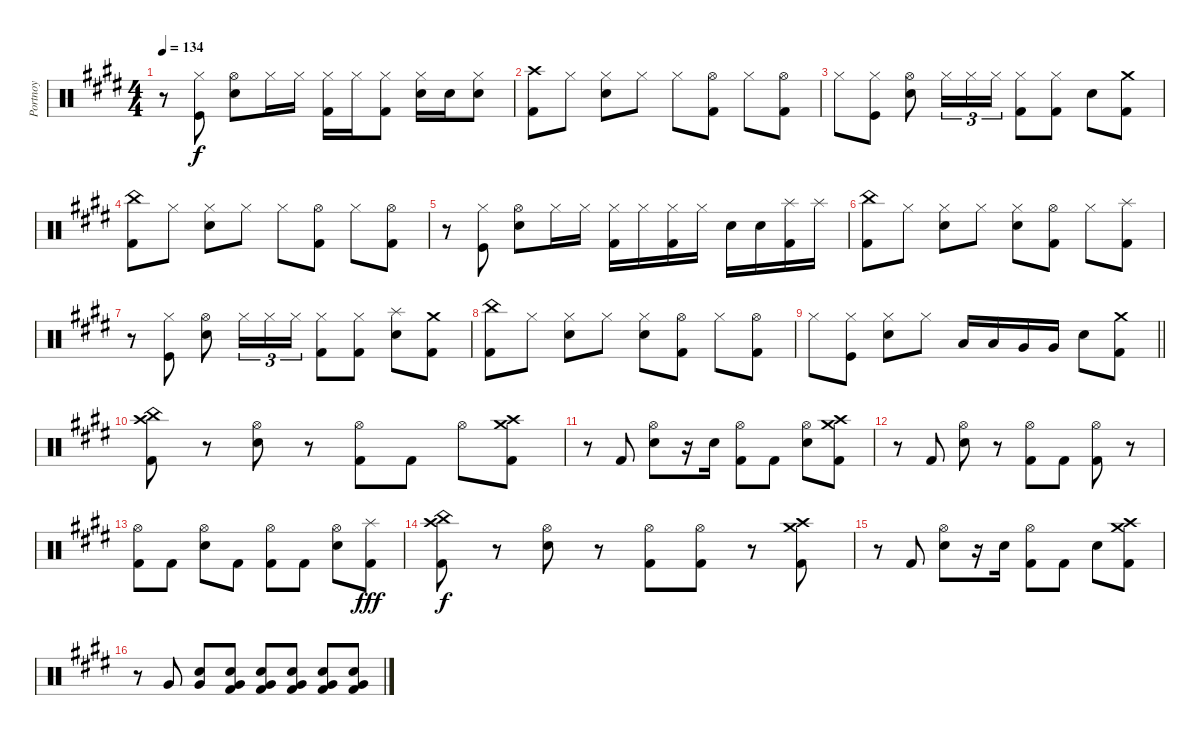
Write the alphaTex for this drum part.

\track ("Portnoy" "Portnoy") {instrument percussion}
\staff {score}
\articulation defaults
\ts (4 4)
\tempo 134
\clef neutral
\ks c#minor
r.8{dy f} ("Kick (hit)" "Hi-Hat (closed)").8 ("Snare (hit) 2" "Hi-Hat (open)").8 "Hi-Hat (closed)".16 "Hi-Hat (closed)".16 ("Kick (hit) 2" "Hi-Hat (closed)").16 "Hi-Hat (closed)".16 ("Kick (hit) 2" "Hi-Hat (closed)").8 ("Electric Snare (hit)" "Hi-Hat (closed)").16 "Electric Snare (hit)".16 ("Snare (hit) 2" "Hi-Hat (closed)").8 |
("Kick (hit) 2" "Crash high (hit)").8 "Hi-Hat (closed)".8 ("Snare (hit) 2" "Hi-Hat (closed)").8 "Hi-Hat (closed)".8 "Hi-Hat (closed)".8 ("Kick (hit) 2" "Hi-Hat (open)").8 "Hi-Hat (closed)".8 ("Kick (hit) 2" "Hi-Hat (open)").8 |
"Hi-Hat (closed)".8 ("Kick (hit)" "Hi-Hat (closed)").8 ("Snare (hit) 2" "Hi-Hat (open)").8 "Hi-Hat (closed)".16{tu (3 2)} "Hi-Hat (closed)".16{tu (3 2)} "Hi-Hat (closed)".16{tu (3 2)} ("Kick (hit) 2" "Hi-Hat (closed)").8 ("Kick (hit) 2" "Hi-Hat (closed)").8 "Snare (hit) 2".8 ("Kick (hit) 2" "Crash medium (hit)").8 |
("Kick (hit) 2" "China (hit)").8 "Hi-Hat (closed)".8 ("Snare (hit) 2" "Hi-Hat (closed)").8 "Hi-Hat (closed)".8 "Hi-Hat (closed)".8 ("Kick (hit) 2" "Hi-Hat (open)").8 "Hi-Hat (closed)".8 ("Kick (hit) 2" "Hi-Hat (open)").8 |
r.8 ("Kick (hit)" "Hi-Hat (closed)").8 ("Snare (hit) 2" "Hi-Hat (open)").8 "Hi-Hat (closed)".16 "Hi-Hat (closed)".16 ("Kick (hit) 2" "Hi-Hat (closed)").16 "Hi-Hat (closed)".16 ("Kick (hit) 2" "Hi-Hat (closed)").16 "Hi-Hat (closed)".16 "Electric Snare (hit)".16 "Electric Snare (hit)".16 ("Kick (hit) 2" "Splash (hit)").16 "Splash (hit)".16 |
("Kick (hit) 2" "China (hit)").8 "Hi-Hat (closed)".8 ("Snare (hit) 2" "Hi-Hat (closed)").8 "Hi-Hat (closed)".8 ("Snare (hit) 2" "Hi-Hat (closed)").8 ("Kick (hit) 2" "Hi-Hat (open)").8 "Hi-Hat (closed)".8 ("Kick (hit) 2" "Splash (hit)").8 |
r.8 ("Kick (hit)" "Hi-Hat (closed)").8 ("Snare (hit) 2" "Hi-Hat (open)").8 "Hi-Hat (closed)".16{tu (3 2)} "Hi-Hat (closed)".16{tu (3 2)} "Hi-Hat (closed)".16{tu (3 2)} ("Kick (hit) 2" "Hi-Hat (closed)").8 ("Kick (hit) 2" "Hi-Hat (closed)").8 ("Snare (hit) 2" "Splash (hit)").8 ("Kick (hit) 2" "Crash medium (hit)").8 |
("Kick (hit) 2" "China (hit)").8 "Hi-Hat (closed)".8 ("Snare (hit) 2" "Hi-Hat (closed)").8 "Hi-Hat (closed)".8 ("Snare (hit) 2" "Hi-Hat (closed)").8 ("Kick (hit) 2" "Hi-Hat (open)").8 "Hi-Hat (closed)".8 ("Kick (hit) 2" "Hi-Hat (open)").8 |
\barLineRight lightlight "Hi-Hat (closed)".8
("Kick (hit)" "Hi-Hat (closed)").8 ("Snare (hit) 2" "Hi-Hat (closed)").8 "Hi-Hat (closed)".8 "Low Tom (hit)".16 "Low Tom (hit)".16 "Very Low Tom (hit)".16 "Very Low Tom (hit)".16 "Snare (hit) 2".8 ("Crash medium (hit)" "Kick (hit) 2").8 |
("Kick (hit) 2" "Crash high (hit)" "China (hit)").8 r.8 ("Snare (hit) 2" "Hi-Hat (open)").8 r.8 ("Kick (hit) 2" "Hi-Hat (open)").8 "Kick (hit) 2".8 "Hi-Hat (open)".8 ("Kick (hit) 2" "Crash high (hit)" "Crash medium (hit)").8 |
r.8 "Kick (hit) 2".8 ("Snare (hit) 2" "Hi-Hat (open)").8 r.16 "Electric Snare (hit)".16 ("Kick (hit) 2" "Hi-Hat (open)").8 "Kick (hit) 2".8 ("Snare (hit) 2" "Hi-Hat (open)").8 ("Kick (hit) 2" "Crash medium (hit)" "Crash high (hit)").8 |
r.8 "Kick (hit) 2".8 ("Snare (hit) 2" "Hi-Hat (open)").8 r.8 ("Kick (hit) 2" "Hi-Hat (open)").8 "Kick (hit) 2".8 ("Kick (hit) 2" "Hi-Hat (open)").8 r.8 |
("Kick (hit) 2" "Hi-Hat (open)").8 "Kick (hit) 2".8 ("Snare (hit) 2" "Hi-Hat (open)").8 "Kick (hit) 2".8 ("Kick (hit) 2" "Hi-Hat (open)").8 "Kick (hit) 2".8 ("Snare (hit) 2" "Hi-Hat (open)").8 ("Kick (hit) 2" "Splash (hit)").8{dy fff} |
("Kick (hit) 2" "Crash high (hit)" "China (hit)").8{dy f} r.8 ("Snare (hit) 2" "Hi-Hat (open)").8 r.8 ("Kick (hit) 2" "Hi-Hat (open)").8 ("Kick (hit) 2" "Hi-Hat (open)").8 r.8 ("Kick (hit) 2" "Crash high (hit)" "Crash medium (hit)").8 |
r.8 "Kick (hit) 2".8 ("Snare (hit) 2" "Hi-Hat (open)").8 r.16 "Electric Snare (hit)".16 ("Kick (hit) 2" "Hi-Hat (open)").8 "Kick (hit) 2".8 "Snare (hit) 2".8 ("Kick (hit) 2" "Crash medium (hit)" "Crash high (hit)").8 |
r.8 "Very Low Tom (hit)".8 ("Very Low Tom (hit)" "Snare (hit) 2").8 ("Very Low Tom (hit)" "Snare (hit) 2" "Kick (hit) 2").8 ("Very Low Tom (hit)" "Snare (hit) 2" "Kick (hit) 2").8 ("Very Low Tom (hit)" "Snare (hit) 2" "Kick (hit) 2").8 ("Very Low Tom (hit)" "Snare (hit) 2" "Kick (hit) 2").8 ("Very Low Tom (hit)" "Snare (hit) 2" "Kick (hit) 2").8
